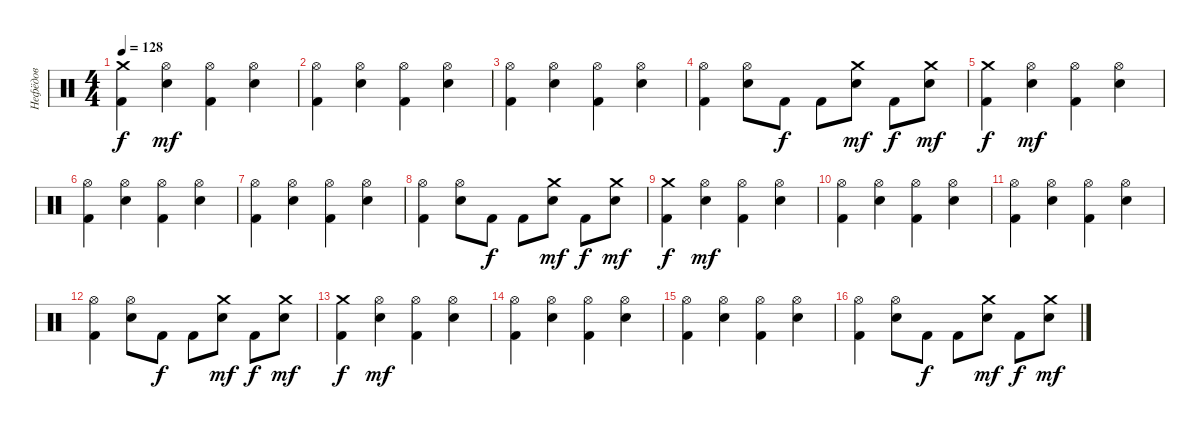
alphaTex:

\track ("Нефёдов" "Нефёдов") {instrument percussion}
\staff {score}
\articulation defaults
\ts (4 4)
\tempo 128
\clef neutral
\ks c
("Crash medium (hit)" "Kick (hit) 2").4{dy f} ("Hi-Hat (open)" "Snare (hit) 2").4{dy mf} ("Hi-Hat (open)" "Kick (hit) 2").4 ("Hi-Hat (open)" "Snare (hit) 2").4 |
("Hi-Hat (open)" "Kick (hit) 2").4 ("Hi-Hat (open)" "Snare (hit) 2").4 ("Hi-Hat (open)" "Kick (hit) 2").4 ("Hi-Hat (open)" "Snare (hit) 2").4 |
("Hi-Hat (open)" "Kick (hit) 2").4 ("Hi-Hat (open)" "Snare (hit) 2").4 ("Hi-Hat (open)" "Kick (hit) 2").4 ("Hi-Hat (open)" "Snare (hit) 2").4 |
("Hi-Hat (open)" "Kick (hit) 2").4 ("Hi-Hat (open)" "Snare (hit) 2").8 "Kick (hit) 2".8{dy f} "Kick (hit) 2".8 ("Crash medium (hit)" "Snare (hit) 2").8{dy mf} "Kick (hit) 2".8{dy f} ("Crash medium (hit)" "Snare (hit) 2").8{dy mf} |
("Crash medium (hit)" "Kick (hit) 2").4{dy f} ("Hi-Hat (open)" "Snare (hit) 2").4{dy mf} ("Hi-Hat (open)" "Kick (hit) 2").4 ("Hi-Hat (open)" "Snare (hit) 2").4 |
("Hi-Hat (open)" "Kick (hit) 2").4 ("Hi-Hat (open)" "Snare (hit) 2").4 ("Hi-Hat (open)" "Kick (hit) 2").4 ("Hi-Hat (open)" "Snare (hit) 2").4 |
("Hi-Hat (open)" "Kick (hit) 2").4 ("Hi-Hat (open)" "Snare (hit) 2").4 ("Hi-Hat (open)" "Kick (hit) 2").4 ("Hi-Hat (open)" "Snare (hit) 2").4 |
("Hi-Hat (open)" "Kick (hit) 2").4 ("Hi-Hat (open)" "Snare (hit) 2").8 "Kick (hit) 2".8{dy f} "Kick (hit) 2".8 ("Crash medium (hit)" "Snare (hit) 2").8{dy mf} "Kick (hit) 2".8{dy f} ("Crash medium (hit)" "Snare (hit) 2").8{dy mf} |
("Crash medium (hit)" "Kick (hit) 2").4{dy f} ("Hi-Hat (open)" "Snare (hit) 2").4{dy mf} ("Hi-Hat (open)" "Kick (hit) 2").4 ("Hi-Hat (open)" "Snare (hit) 2").4 |
("Hi-Hat (open)" "Kick (hit) 2").4 ("Hi-Hat (open)" "Snare (hit) 2").4 ("Hi-Hat (open)" "Kick (hit) 2").4 ("Hi-Hat (open)" "Snare (hit) 2").4 |
("Hi-Hat (open)" "Kick (hit) 2").4 ("Hi-Hat (open)" "Snare (hit) 2").4 ("Hi-Hat (open)" "Kick (hit) 2").4 ("Hi-Hat (open)" "Snare (hit) 2").4 |
("Hi-Hat (open)" "Kick (hit) 2").4 ("Hi-Hat (open)" "Snare (hit) 2").8 "Kick (hit) 2".8{dy f} "Kick (hit) 2".8 ("Crash medium (hit)" "Snare (hit) 2").8{dy mf} "Kick (hit) 2".8{dy f} ("Crash medium (hit)" "Snare (hit) 2").8{dy mf} |
("Crash medium (hit)" "Kick (hit) 2").4{dy f} ("Hi-Hat (open)" "Snare (hit) 2").4{dy mf} ("Hi-Hat (open)" "Kick (hit) 2").4 ("Hi-Hat (open)" "Snare (hit) 2").4 |
("Hi-Hat (open)" "Kick (hit) 2").4 ("Hi-Hat (open)" "Snare (hit) 2").4 ("Hi-Hat (open)" "Kick (hit) 2").4 ("Hi-Hat (open)" "Snare (hit) 2").4 |
("Hi-Hat (open)" "Kick (hit) 2").4 ("Hi-Hat (open)" "Snare (hit) 2").4 ("Hi-Hat (open)" "Kick (hit) 2").4 ("Hi-Hat (open)" "Snare (hit) 2").4 |
("Hi-Hat (open)" "Kick (hit) 2").4 ("Hi-Hat (open)" "Snare (hit) 2").8 "Kick (hit) 2".8{dy f} "Kick (hit) 2".8 ("Crash medium (hit)" "Snare (hit) 2").8{dy mf} "Kick (hit) 2".8{dy f} ("Crash medium (hit)" "Snare (hit) 2").8{dy mf}
